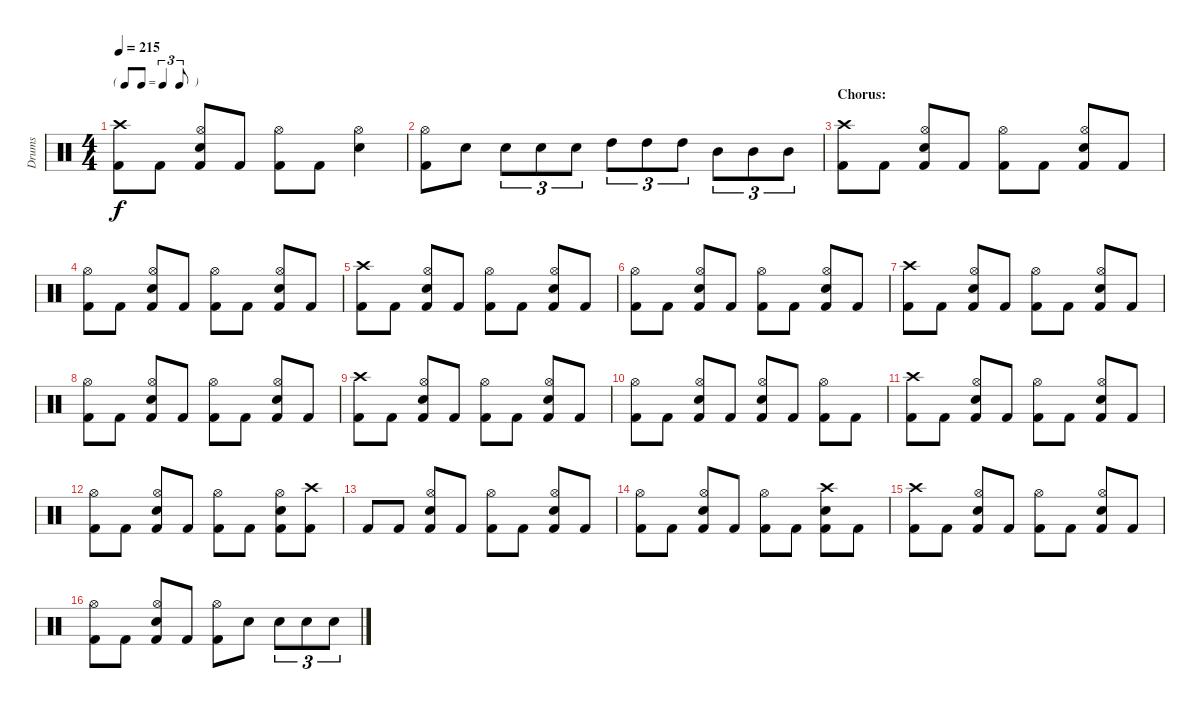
\track ("Drums" "Drums") {instrument percussion}
\staff {score}
\articulation defaults
\ts (4 4)
\tf triplet8th
\tempo 215
\clef neutral
\ks c
("Crash high (hit)" "Kick (hit) 2").8{dy f} "Kick (hit) 2".8 ("Hi-Hat (open)" "Electric Snare (hit)" "Kick (hit) 2").8 "Kick (hit) 2".8 ("Hi-Hat (open)" "Kick (hit) 2").8 "Kick (hit) 2".8 ("Hi-Hat (open)" "Electric Snare (hit)").4 |
("Hi-Hat (open)" "Kick (hit) 2").8 "Electric Snare (hit)".8 "Electric Snare (hit)".8{tu (3 2)} "Electric Snare (hit)".8{tu (3 2)} "Electric Snare (hit)".8{tu (3 2)} "High Tom (hit)".8{tu (3 2)} "High Tom (hit)".8{tu (3 2)} "High Tom (hit)".8{tu (3 2)} "Mid Tom (hit)".8{tu (3 2)} "Mid Tom (hit)".8{tu (3 2)} "Mid Tom (hit)".8{tu (3 2)} |
\section ("" "Chorus:")
("Crash high (hit)" "Kick (hit) 2").8 "Kick (hit) 2".8 ("Hi-Hat (open)" "Electric Snare (hit)" "Kick (hit) 2").8 "Kick (hit) 2".8 ("Hi-Hat (open)" "Kick (hit) 2").8 "Kick (hit) 2".8 ("Hi-Hat (open)" "Electric Snare (hit)" "Kick (hit) 2").8 "Kick (hit) 2".8 |
("Hi-Hat (open)" "Kick (hit) 2").8 "Kick (hit) 2".8 ("Hi-Hat (open)" "Electric Snare (hit)" "Kick (hit) 2").8 "Kick (hit) 2".8 ("Hi-Hat (open)" "Kick (hit) 2").8 "Kick (hit) 2".8 ("Hi-Hat (open)" "Electric Snare (hit)" "Kick (hit) 2").8 "Kick (hit) 2".8 |
("Crash high (hit)" "Kick (hit) 2").8 "Kick (hit) 2".8 ("Hi-Hat (open)" "Electric Snare (hit)" "Kick (hit) 2").8 "Kick (hit) 2".8 ("Hi-Hat (open)" "Kick (hit) 2").8 "Kick (hit) 2".8 ("Hi-Hat (open)" "Electric Snare (hit)" "Kick (hit) 2").8 "Kick (hit) 2".8 |
("Hi-Hat (open)" "Kick (hit) 2").8 "Kick (hit) 2".8 ("Hi-Hat (open)" "Electric Snare (hit)" "Kick (hit) 2").8 "Kick (hit) 2".8 ("Hi-Hat (open)" "Kick (hit) 2").8 "Kick (hit) 2".8 ("Hi-Hat (open)" "Electric Snare (hit)" "Kick (hit) 2").8 "Kick (hit) 2".8 |
("Crash high (hit)" "Kick (hit) 2").8 "Kick (hit) 2".8 ("Hi-Hat (open)" "Electric Snare (hit)" "Kick (hit) 2").8 "Kick (hit) 2".8 ("Hi-Hat (open)" "Kick (hit) 2").8 "Kick (hit) 2".8 ("Hi-Hat (open)" "Electric Snare (hit)" "Kick (hit) 2").8 "Kick (hit) 2".8 |
("Hi-Hat (open)" "Kick (hit) 2").8 "Kick (hit) 2".8 ("Hi-Hat (open)" "Electric Snare (hit)" "Kick (hit) 2").8 "Kick (hit) 2".8 ("Hi-Hat (open)" "Kick (hit) 2").8 "Kick (hit) 2".8 ("Hi-Hat (open)" "Electric Snare (hit)" "Kick (hit) 2").8 "Kick (hit) 2".8 |
("Crash high (hit)" "Kick (hit) 2").8 "Kick (hit) 2".8 ("Hi-Hat (open)" "Electric Snare (hit)" "Kick (hit) 2").8 "Kick (hit) 2".8 ("Hi-Hat (open)" "Kick (hit) 2").8 "Kick (hit) 2".8 ("Hi-Hat (open)" "Electric Snare (hit)" "Kick (hit) 2").8 "Kick (hit) 2".8 |
("Hi-Hat (open)" "Kick (hit) 2").8 "Kick (hit) 2".8 ("Hi-Hat (open)" "Electric Snare (hit)" "Kick (hit) 2").8 "Kick (hit) 2".8 ("Hi-Hat (open)" "Electric Snare (hit)" "Kick (hit) 2").8 "Kick (hit) 2".8 ("Hi-Hat (open)" "Kick (hit) 2").8 "Kick (hit) 2".8 |
("Crash high (hit)" "Kick (hit) 2").8 "Kick (hit) 2".8 ("Hi-Hat (open)" "Electric Snare (hit)" "Kick (hit) 2").8 "Kick (hit) 2".8 ("Hi-Hat (open)" "Kick (hit) 2").8 "Kick (hit) 2".8 ("Hi-Hat (open)" "Electric Snare (hit)" "Kick (hit) 2").8 "Kick (hit) 2".8 |
("Hi-Hat (open)" "Kick (hit) 2").8 "Kick (hit) 2".8 ("Hi-Hat (open)" "Electric Snare (hit)" "Kick (hit) 2").8 "Kick (hit) 2".8 ("Hi-Hat (open)" "Kick (hit) 2").8 "Kick (hit) 2".8 ("Hi-Hat (open)" "Electric Snare (hit)" "Kick (hit) 2").8 ("Crash high (hit)" "Kick (hit) 2").8 |
"Kick (hit) 2".8 "Kick (hit) 2".8 ("Hi-Hat (open)" "Electric Snare (hit)" "Kick (hit) 2").8 "Kick (hit) 2".8 ("Hi-Hat (open)" "Kick (hit) 2").8 "Kick (hit) 2".8 ("Hi-Hat (open)" "Electric Snare (hit)" "Kick (hit) 2").8 "Kick (hit) 2".8 |
("Hi-Hat (open)" "Kick (hit) 2").8 "Kick (hit) 2".8 ("Hi-Hat (open)" "Electric Snare (hit)" "Kick (hit) 2").8 "Kick (hit) 2".8 ("Hi-Hat (open)" "Kick (hit) 2").8 "Kick (hit) 2".8 ("Crash high (hit)" "Electric Snare (hit)" "Kick (hit) 2").8 "Kick (hit) 2".8 |
("Crash high (hit)" "Kick (hit) 2").8 "Kick (hit) 2".8 ("Hi-Hat (open)" "Electric Snare (hit)" "Kick (hit) 2").8 "Kick (hit) 2".8 ("Hi-Hat (open)" "Kick (hit) 2").8 "Kick (hit) 2".8 ("Hi-Hat (open)" "Electric Snare (hit)" "Kick (hit) 2").8 "Kick (hit) 2".8 |
("Hi-Hat (open)" "Kick (hit) 2").8 "Kick (hit) 2".8 ("Hi-Hat (open)" "Electric Snare (hit)" "Kick (hit) 2").8 "Kick (hit) 2".8 ("Hi-Hat (open)" "Kick (hit) 2").8 "Electric Snare (hit)".8 "Electric Snare (hit)".8{tu (3 2)} "Electric Snare (hit)".8{tu (3 2)} "Electric Snare (hit)".8{tu (3 2)}
